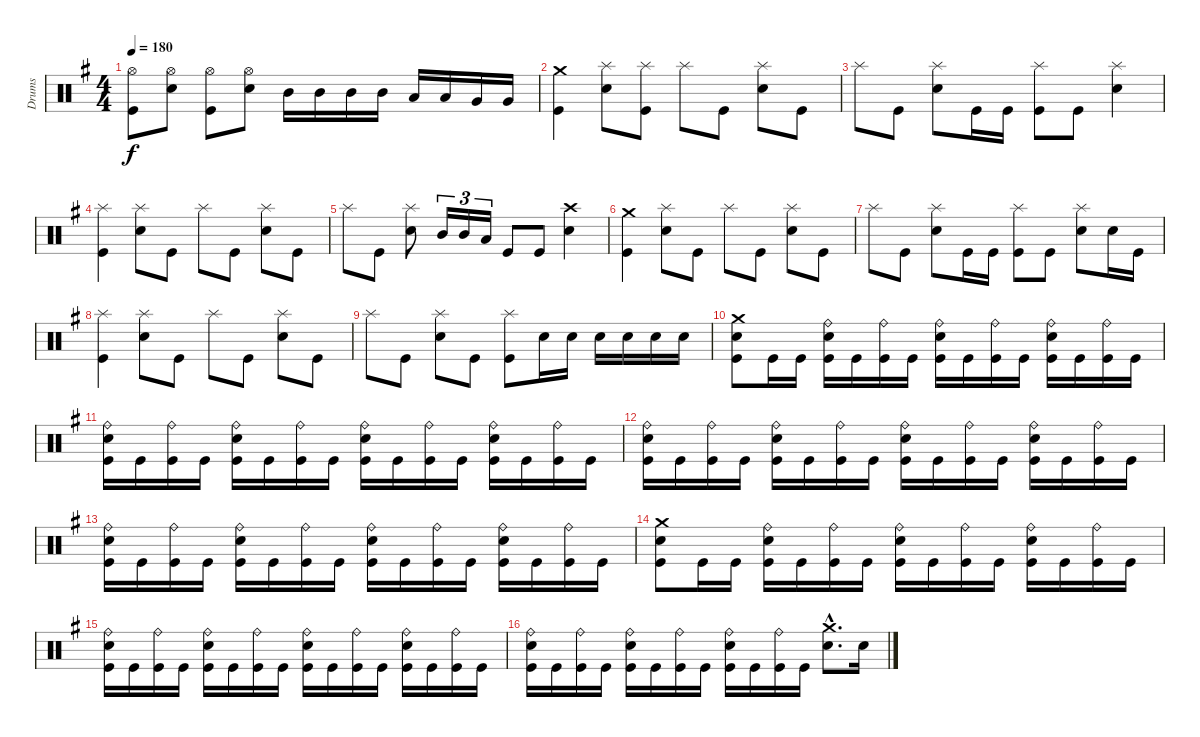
\track ("Drums" "Drums") {instrument percussion}
\staff {score}
\articulation defaults
\ts (4 4)
\tempo 180
\clef neutral
\ks g
("Kick (hit)" "Hi-Hat (open)").8{dy f} ("Electric Snare (hit)" "Hi-Hat (open)").8 ("Kick (hit)" "Hi-Hat (open)").8 ("Electric Snare (hit)" "Hi-Hat (open)").8 "Mid Tom (hit)".16 "Mid Tom (hit)".16 "Mid Tom (hit)".16 "Mid Tom (hit)".16 "Low Tom (hit)".16 "Low Tom (hit)".16 "Very Low Tom (hit)".16 "Very Low Tom (hit)".16 |
("Kick (hit)" "Crash medium (hit)").4 ("Electric Snare (hit)" "Splash (hit)").8 ("Kick (hit)" "Splash (hit)").8 "Splash (hit)".8 "Kick (hit)".8 ("Electric Snare (hit)" "Splash (hit)").8 "Kick (hit)".8 |
"Splash (hit)".8 "Kick (hit)".8 ("Electric Snare (hit)" "Splash (hit)").8 "Kick (hit)".16 "Kick (hit)".16 ("Kick (hit)" "Splash (hit)").8 "Kick (hit)".8 ("Electric Snare (hit)" "Splash (hit)").4 |
("Kick (hit)" "Splash (hit)").4 ("Electric Snare (hit)" "Splash (hit)").8 "Kick (hit)".8 "Splash (hit)".8 "Kick (hit)".8 ("Electric Snare (hit)" "Splash (hit)").8 "Kick (hit)".8 |
"Splash (hit)".8 "Kick (hit)".8 ("Electric Snare (hit)" "Splash (hit)").8 "Mid Tom (hit)".16{tu (3 2)} "Mid Tom (hit)".16{tu (3 2)} "Low Tom (hit)".16{tu (3 2)} "Kick (hit)".8 "Kick (hit)".8 ("Electric Snare (hit)" "Crash high (hit)").4 |
("Kick (hit)" "Crash medium (hit)").4 ("Electric Snare (hit)" "Splash (hit)").8 "Kick (hit)".8 "Splash (hit)".8 "Kick (hit)".8 ("Electric Snare (hit)" "Splash (hit)").8 "Kick (hit)".8 |
"Splash (hit)".8 "Kick (hit)".8 ("Electric Snare (hit)" "Splash (hit)").8 "Kick (hit)".16 "Kick (hit)".16 ("Kick (hit)" "Splash (hit)").8 "Kick (hit)".8 ("Electric Snare (hit)" "Splash (hit)").8 "Electric Snare (hit)".16 "Kick (hit)".16 |
("Kick (hit)" "Splash (hit)").4 ("Electric Snare (hit)" "Splash (hit)").8 "Kick (hit)".8 "Splash (hit)".8 "Kick (hit)".8 ("Electric Snare (hit)" "Splash (hit)").8 "Kick (hit)".8 |
"Splash (hit)".8 "Kick (hit)".8 ("Electric Snare (hit)" "Splash (hit)").8 "Kick (hit)".8 ("Kick (hit)" "Splash (hit)").8 "Electric Snare (hit)".16 "Electric Snare (hit)".16 "Electric Snare (hit)".16 "Electric Snare (hit)".16 "Electric Snare (hit)".16 "Electric Snare (hit)".16 |
("Kick (hit)" "Electric Snare (hit)" "Crash medium (hit)").8 "Kick (hit)".16 "Kick (hit)".16 ("Kick (hit)" "Electric Snare (hit)" "Ride (bell)").16 "Kick (hit)".16 ("Kick (hit)" "Ride (bell)").16 "Kick (hit)".16 ("Kick (hit)" "Electric Snare (hit)" "Ride (bell)").16 "Kick (hit)".16 ("Kick (hit)" "Ride (bell)").16 "Kick (hit)".16 ("Kick (hit)" "Electric Snare (hit)" "Ride (bell)").16 "Kick (hit)".16 ("Kick (hit)" "Ride (bell)").16 "Kick (hit)".16 |
("Kick (hit)" "Electric Snare (hit)" "Ride (bell)").16 "Kick (hit)".16 ("Kick (hit)" "Ride (bell)").16 "Kick (hit)".16 ("Kick (hit)" "Electric Snare (hit)" "Ride (bell)").16 "Kick (hit)".16 ("Kick (hit)" "Ride (bell)").16 "Kick (hit)".16 ("Kick (hit)" "Electric Snare (hit)" "Ride (bell)").16 "Kick (hit)".16 ("Kick (hit)" "Ride (bell)").16 "Kick (hit)".16 ("Kick (hit)" "Electric Snare (hit)" "Ride (bell)").16 "Kick (hit)".16 ("Kick (hit)" "Ride (bell)").16 "Kick (hit)".16 |
("Kick (hit)" "Electric Snare (hit)" "Ride (bell)").16 "Kick (hit)".16 ("Kick (hit)" "Ride (bell)").16 "Kick (hit)".16 ("Kick (hit)" "Electric Snare (hit)" "Ride (bell)").16 "Kick (hit)".16 ("Kick (hit)" "Ride (bell)").16 "Kick (hit)".16 ("Kick (hit)" "Electric Snare (hit)" "Ride (bell)").16 "Kick (hit)".16 ("Kick (hit)" "Ride (bell)").16 "Kick (hit)".16 ("Kick (hit)" "Electric Snare (hit)" "Ride (bell)").16 "Kick (hit)".16 ("Kick (hit)" "Ride (bell)").16 "Kick (hit)".16 |
("Kick (hit)" "Electric Snare (hit)" "Ride (bell)").16 "Kick (hit)".16 ("Kick (hit)" "Ride (bell)").16 "Kick (hit)".16 ("Kick (hit)" "Electric Snare (hit)" "Ride (bell)").16 "Kick (hit)".16 ("Kick (hit)" "Ride (bell)").16 "Kick (hit)".16 ("Kick (hit)" "Electric Snare (hit)" "Ride (bell)").16 "Kick (hit)".16 ("Kick (hit)" "Ride (bell)").16 "Kick (hit)".16 ("Kick (hit)" "Electric Snare (hit)" "Ride (bell)").16 "Kick (hit)".16 ("Kick (hit)" "Ride (bell)").16 "Kick (hit)".16 |
("Kick (hit)" "Electric Snare (hit)" "Crash medium (hit)").8 "Kick (hit)".16 "Kick (hit)".16 ("Kick (hit)" "Electric Snare (hit)" "Ride (bell)").16 "Kick (hit)".16 ("Kick (hit)" "Ride (bell)").16 "Kick (hit)".16 ("Kick (hit)" "Electric Snare (hit)" "Ride (bell)").16 "Kick (hit)".16 ("Kick (hit)" "Ride (bell)").16 "Kick (hit)".16 ("Kick (hit)" "Electric Snare (hit)" "Ride (bell)").16 "Kick (hit)".16 ("Kick (hit)" "Ride (bell)").16 "Kick (hit)".16 |
("Kick (hit)" "Electric Snare (hit)" "Ride (bell)").16 "Kick (hit)".16 ("Kick (hit)" "Ride (bell)").16 "Kick (hit)".16 ("Kick (hit)" "Electric Snare (hit)" "Ride (bell)").16 "Kick (hit)".16 ("Kick (hit)" "Ride (bell)").16 "Kick (hit)".16 ("Kick (hit)" "Electric Snare (hit)" "Ride (bell)").16 "Kick (hit)".16 ("Kick (hit)" "Ride (bell)").16 "Kick (hit)".16 ("Kick (hit)" "Electric Snare (hit)" "Ride (bell)").16 "Kick (hit)".16 ("Kick (hit)" "Ride (bell)").16 "Kick (hit)".16 |
("Kick (hit)" "Electric Snare (hit)" "Ride (bell)").16 "Kick (hit)".16 ("Kick (hit)" "Ride (bell)").16 "Kick (hit)".16 ("Kick (hit)" "Electric Snare (hit)" "Ride (bell)").16 "Kick (hit)".16 ("Kick (hit)" "Ride (bell)").16 "Kick (hit)".16 ("Kick (hit)" "Electric Snare (hit)" "Ride (bell)").16 "Kick (hit)".16 ("Kick (hit)" "Ride (bell)").16 "Kick (hit)".16 ("Electric Snare (hit)"{hac} "Crash medium (hit)"{hac}).8{d} "Electric Snare (hit)".16
